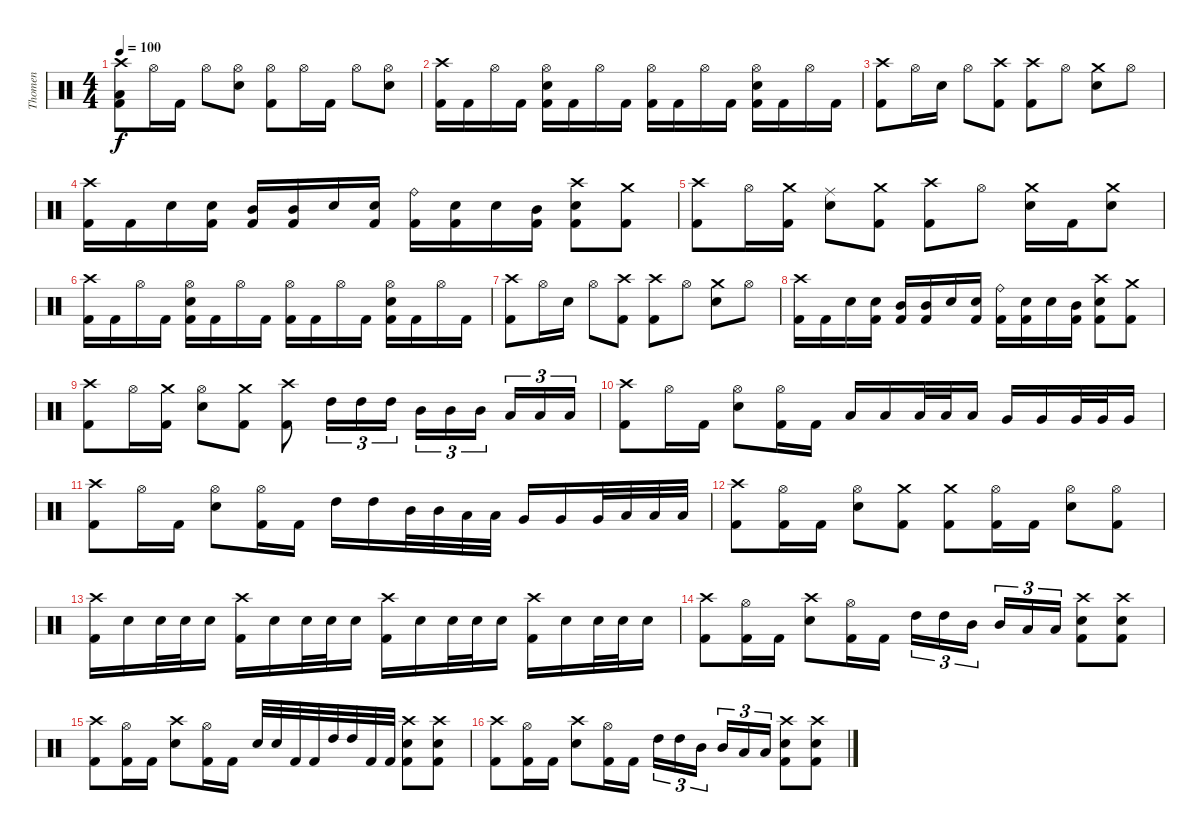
\track ("Thomen" "Thomen") {instrument percussion}
\staff {score}
\articulation defaults
\ts (4 4)
\tempo 100
\clef neutral
\ks c
("Crash high (hit)" "Low Tom (hit)" "Kick (hit) 2").8{dy f} "Hi-Hat (open)".16 "Kick (hit) 2".16 "Hi-Hat (open)".8 ("Hi-Hat (open)" "Snare (hit) 2").8 ("Hi-Hat (open)" "Kick (hit) 2").8 "Hi-Hat (open)".16 "Kick (hit) 2".16 "Hi-Hat (open)".8 ("Hi-Hat (open)" "Snare (hit) 2").8 |
("Crash high (hit)" "Kick (hit) 2").16 "Kick (hit) 2".16 "Hi-Hat (open)".16 "Kick (hit) 2".16 ("Hi-Hat (open)" "Snare (hit) 2" "Kick (hit) 2").16 "Kick (hit) 2".16 "Hi-Hat (open)".16 "Kick (hit) 2".16 ("Hi-Hat (open)" "Kick (hit) 2").16 "Kick (hit) 2".16 "Hi-Hat (open)".16 "Kick (hit) 2".16 ("Hi-Hat (open)" "Snare (hit) 2" "Kick (hit) 2").16 "Kick (hit) 2".16 "Hi-Hat (open)".16 "Kick (hit) 2".16 |
("Crash high (hit)" "Kick (hit) 2").8 "Hi-Hat (open)".16 "Snare (hit) 2".16 "Hi-Hat (open)".8 ("Crash high (hit)" "Kick (hit) 2").8 ("Crash high (hit)" "Kick (hit) 2").8 "Hi-Hat (open)".8 ("Crash medium (hit)" "Snare (hit) 2").8 "Hi-Hat (open)".8 |
("Crash high (hit)" "Kick (hit) 2").16 "Kick (hit) 2".16 "Snare (hit) 2".16 ("Snare (hit) 2" "Kick (hit) 2").16 ("Mid Tom (hit)" "Kick (hit) 2").16 ("Mid Tom (hit)" "Kick (hit) 2").16 "Snare (hit) 2".16 ("Snare (hit) 2" "Kick (hit) 2").16 ("Ride (bell)" "Kick (hit) 2").16 ("Snare (hit) 2" "Kick (hit) 2").16 "Snare (hit) 2".16 ("Mid Tom (hit)" "Kick (hit) 2").16 ("Crash high (hit)" "Snare (hit) 2" "Kick (hit) 2").8 ("Crash medium (hit)" "Kick (hit) 2").8 |
("Crash high (hit)" "Kick (hit) 2").8 "Hi-Hat (open)".16 ("Crash medium (hit)" "Kick (hit) 2").16 ("Ride (middle)" "Snare (hit) 2").8 ("Crash medium (hit)" "Kick (hit) 2").8 ("Crash high (hit)" "Kick (hit) 2").8 "Hi-Hat (open)".8 ("Crash medium (hit)" "Snare (hit) 2").16 "Kick (hit) 2".16 ("Crash medium (hit)" "Snare (hit) 2").8 |
("Crash high (hit)" "Kick (hit) 2").16 "Kick (hit) 2".16 "Hi-Hat (open)".16 "Kick (hit) 2".16 ("Hi-Hat (open)" "Snare (hit) 2" "Kick (hit) 2").16 "Kick (hit) 2".16 "Hi-Hat (open)".16 "Kick (hit) 2".16 ("Hi-Hat (open)" "Kick (hit) 2").16 "Kick (hit) 2".16 "Hi-Hat (open)".16 "Kick (hit) 2".16 ("Hi-Hat (open)" "Snare (hit) 2" "Kick (hit) 2").16 "Kick (hit) 2".16 "Hi-Hat (open)".16 "Kick (hit) 2".16 |
("Crash high (hit)" "Kick (hit) 2").8 "Hi-Hat (open)".16 "Snare (hit) 2".16 "Hi-Hat (open)".8 ("Crash high (hit)" "Kick (hit) 2").8 ("Crash high (hit)" "Kick (hit) 2").8 "Hi-Hat (open)".8 ("Crash medium (hit)" "Snare (hit) 2").8 "Hi-Hat (open)".8 |
("Crash high (hit)" "Kick (hit) 2").16 "Kick (hit) 2".16 "Snare (hit) 2".16 ("Snare (hit) 2" "Kick (hit) 2").16 ("Mid Tom (hit)" "Kick (hit) 2").16 ("Mid Tom (hit)" "Kick (hit) 2").16 "Snare (hit) 2".16 ("Snare (hit) 2" "Kick (hit) 2").16 ("Ride (bell)" "Kick (hit) 2").16 ("Snare (hit) 2" "Kick (hit) 2").16 "Snare (hit) 2".16 ("Mid Tom (hit)" "Kick (hit) 2").16 ("Crash high (hit)" "Snare (hit) 2" "Kick (hit) 2").8 ("Crash medium (hit)" "Kick (hit) 2").8 |
("Crash high (hit)" "Kick (hit) 2").8 "Hi-Hat (open)".16 ("Crash medium (hit)" "Kick (hit) 2").16 ("Hi-Hat (open)" "Snare (hit) 2").8 ("Crash medium (hit)" "Kick (hit) 2").8 ("Crash high (hit)" "Kick (hit) 2").8 "High Tom (hit)".16{tu (3 2)} "High Tom (hit)".16{tu (3 2)} "High Tom (hit)".16{tu (3 2)} "Mid Tom (hit)".16{tu (3 2)} "Mid Tom (hit)".16{tu (3 2)} "Mid Tom (hit)".16{tu (3 2)} "Low Tom (hit)".16{tu (3 2)} "Low Tom (hit)".16{tu (3 2)} "Low Tom (hit)".16{tu (3 2)} |
("Crash high (hit)" "Kick (hit) 2").8 "Hi-Hat (open)".16 "Kick (hit) 2".16 ("Hi-Hat (open)" "Snare (hit) 2").8 ("Hi-Hat (open)" "Kick (hit) 2").16 "Kick (hit) 2".16 "Low Tom (hit)".16 "Low Tom (hit)".16 "Low Tom (hit)".32 "Low Tom (hit)".32 "Low Tom (hit)".16 "Very Low Tom (hit)".16 "Very Low Tom (hit)".16 "Very Low Tom (hit)".32 "Very Low Tom (hit)".32 "Very Low Tom (hit)".16 |
("Crash high (hit)" "Kick (hit) 2").8 "Hi-Hat (open)".16 "Kick (hit) 2".16 ("Hi-Hat (open)" "Snare (hit) 2").8 ("Hi-Hat (open)" "Kick (hit) 2").16 "Kick (hit) 2".16 "High Tom (hit)".16 "High Tom (hit)".16 "Mid Tom (hit)".32 "Mid Tom (hit)".32 "Low Tom (hit)".32 "Low Tom (hit)".32 "Very Low Tom (hit)".16 "Very Low Tom (hit)".16 "Very Low Tom (hit)".32 "Low Floor Tom (hit)".32 "Low Floor Tom (hit)".32 "Low Floor Tom (hit)".32 |
("Crash high (hit)" "Kick (hit) 2").8 ("Hi-Hat (open)" "Kick (hit) 2").16 "Kick (hit) 2".16 ("Hi-Hat (open)" "Snare (hit) 2").8 ("Crash medium (hit)" "Kick (hit) 2").8 ("Crash medium (hit)" "Kick (hit) 2").8 ("Hi-Hat (open)" "Kick (hit) 2").16 "Kick (hit) 2".16 ("Hi-Hat (open)" "Snare (hit) 2").8 ("Hi-Hat (open)" "Kick (hit) 2").8 |
("Crash high (hit)" "Kick (hit) 2").16 "Snare (hit) 2".16 "Snare (hit) 2".32 "Snare (hit) 2".32 "Snare (hit) 2".16 ("Crash high (hit)" "Kick (hit) 2").16 "Snare (hit) 2".16 "Snare (hit) 2".32 "Snare (hit) 2".32 "Snare (hit) 2".16 ("Crash high (hit)" "Kick (hit) 2").16 "Snare (hit) 2".16 "Snare (hit) 2".32 "Snare (hit) 2".32 "Snare (hit) 2".16 ("Crash high (hit)" "Kick (hit) 2").16 "Snare (hit) 2".16 "Snare (hit) 2".32 "Snare (hit) 2".32 "Snare (hit) 2".16 |
("Crash high (hit)" "Kick (hit) 2").8 ("Hi-Hat (open)" "Kick (hit) 2").16 "Kick (hit) 2".16 ("Crash high (hit)" "Snare (hit) 2").8 ("Hi-Hat (open)" "Kick (hit) 2").16 "Kick (hit) 2".16 "High Tom (hit)".16{tu (3 2)} "High Tom (hit)".16{tu (3 2)} "Mid Tom (hit)".16{tu (3 2)} "Mid Tom (hit)".16{tu (3 2)} "Low Tom (hit)".16{tu (3 2)} "Low Tom (hit)".16{tu (3 2)} ("Crash high (hit)" "Snare (hit) 2" "Kick (hit) 2").8 ("Crash high (hit)" "Snare (hit) 2" "Kick (hit) 2").8 |
("Crash high (hit)" "Kick (hit) 2").8 ("Hi-Hat (open)" "Kick (hit) 2").16 "Kick (hit) 2".16 ("Crash high (hit)" "Snare (hit) 2").8 ("Hi-Hat (open)" "Kick (hit) 2").16 "Kick (hit) 2".16 "Snare (hit) 2".32 "Snare (hit) 2".32 "Kick (hit) 2".32 "Kick (hit) 2".32 "High Tom (hit)".32 "High Tom (hit)".32 "Kick (hit) 2".32 "Kick (hit) 2".32 ("Crash high (hit)" "Snare (hit) 2" "Kick (hit) 2").8 ("Crash high (hit)" "Snare (hit) 2" "Kick (hit) 2").8 |
("Crash high (hit)" "Kick (hit) 2").8 ("Hi-Hat (open)" "Kick (hit) 2").16 "Kick (hit) 2".16 ("Crash high (hit)" "Snare (hit) 2").8 ("Hi-Hat (open)" "Kick (hit) 2").16 "Kick (hit) 2".16 "High Tom (hit)".16{tu (3 2)} "High Tom (hit)".16{tu (3 2)} "Mid Tom (hit)".16{tu (3 2)} "Mid Tom (hit)".16{tu (3 2)} "Low Tom (hit)".16{tu (3 2)} "Low Tom (hit)".16{tu (3 2)} ("Crash high (hit)" "Snare (hit) 2" "Kick (hit) 2").8 ("Crash high (hit)" "Snare (hit) 2" "Kick (hit) 2").8
